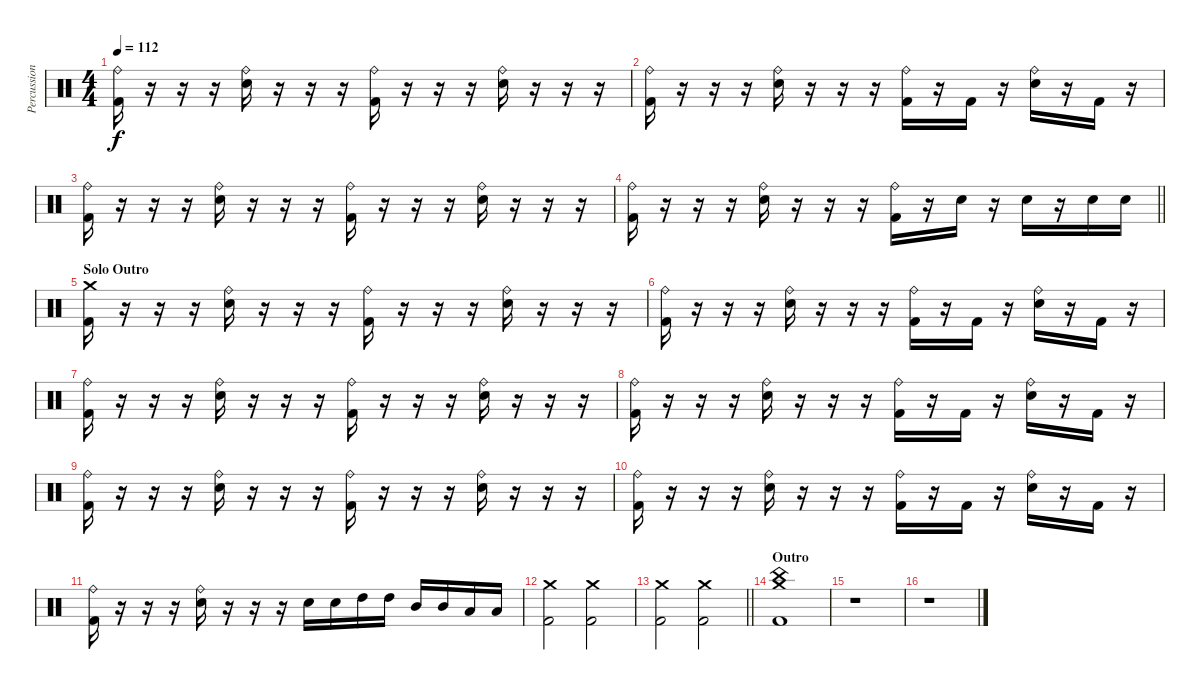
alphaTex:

\track ("Percussioni" "Percussion") {instrument percussion}
\staff {score}
\articulation defaults
\ts (4 4)
\tempo 112
\clef neutral
\ks c
("Kick (hit) 2" "Ride (bell)").16{dy f} r.16 r.16 r.16 ("Snare (hit) 2" "Ride (bell)").16 r.16 r.16 r.16 ("Kick (hit) 2" "Ride (bell)").16 r.16 r.16 r.16 ("Snare (hit) 2" "Ride (bell)").16 r.16 r.16 r.16 |
("Kick (hit) 2" "Ride (bell)").16 r.16 r.16 r.16 ("Snare (hit) 2" "Ride (bell)").16 r.16 r.16 r.16 ("Kick (hit) 2" "Ride (bell)").16 r.16 "Kick (hit) 2".16 r.16 ("Snare (hit) 2" "Ride (bell)").16 r.16 "Kick (hit) 2".16 r.16 |
("Kick (hit) 2" "Ride (bell)").16 r.16 r.16 r.16 ("Snare (hit) 2" "Ride (bell)").16 r.16 r.16 r.16 ("Kick (hit) 2" "Ride (bell)").16 r.16 r.16 r.16 ("Snare (hit) 2" "Ride (bell)").16 r.16 r.16 r.16 |
\barLineRight lightlight
("Kick (hit) 2" "Ride (bell)").16 r.16 r.16 r.16 ("Snare (hit) 2" "Ride (bell)").16 r.16 r.16 r.16 ("Kick (hit) 2" "Ride (bell)").16 r.16 "Snare (hit) 2".16 r.16 "Snare (hit) 2".16 r.16 "Snare (hit) 2".16 "Snare (hit) 2".16 |
\section ("" "Solo Outro")
("Kick (hit) 2" "Crash medium (hit)").16 r.16 r.16 r.16 ("Snare (hit) 2" "Ride (bell)").16 r.16 r.16 r.16 ("Kick (hit) 2" "Ride (bell)").16 r.16 r.16 r.16 ("Snare (hit) 2" "Ride (bell)").16 r.16 r.16 r.16 |
("Kick (hit) 2" "Ride (bell)").16 r.16 r.16 r.16 ("Snare (hit) 2" "Ride (bell)").16 r.16 r.16 r.16 ("Kick (hit) 2" "Ride (bell)").16 r.16 "Kick (hit) 2".16 r.16 ("Snare (hit) 2" "Ride (bell)").16 r.16 "Kick (hit) 2".16 r.16 |
("Kick (hit) 2" "Ride (bell)").16 r.16 r.16 r.16 ("Snare (hit) 2" "Ride (bell)").16 r.16 r.16 r.16 ("Kick (hit) 2" "Ride (bell)").16 r.16 r.16 r.16 ("Snare (hit) 2" "Ride (bell)").16 r.16 r.16 r.16 |
("Kick (hit) 2" "Ride (bell)").16 r.16 r.16 r.16 ("Snare (hit) 2" "Ride (bell)").16 r.16 r.16 r.16 ("Kick (hit) 2" "Ride (bell)").16 r.16 "Kick (hit) 2".16 r.16 ("Snare (hit) 2" "Ride (bell)").16 r.16 "Kick (hit) 2".16 r.16 |
("Kick (hit) 2" "Ride (bell)").16 r.16 r.16 r.16 ("Snare (hit) 2" "Ride (bell)").16 r.16 r.16 r.16 ("Kick (hit) 2" "Ride (bell)").16 r.16 r.16 r.16 ("Snare (hit) 2" "Ride (bell)").16 r.16 r.16 r.16 |
("Kick (hit) 2" "Ride (bell)").16 r.16 r.16 r.16 ("Snare (hit) 2" "Ride (bell)").16 r.16 r.16 r.16 ("Kick (hit) 2" "Ride (bell)").16 r.16 "Kick (hit) 2".16 r.16 ("Snare (hit) 2" "Ride (bell)").16 r.16 "Kick (hit) 2".16 r.16 |
("Kick (hit) 2" "Ride (bell)").16 r.16 r.16 r.16 ("Snare (hit) 2" "Ride (bell)").16 r.16 r.16 r.16 "Snare (hit) 2".16 "Snare (hit) 2".16 "High Tom (hit)".16 "High Tom (hit)".16 "Mid Tom (hit)".16 "Mid Tom (hit)".16 "Low Tom (hit)".16 "Low Tom (hit)".16 |
("Kick (hit) 2" "Crash medium (hit)").2 ("Kick (hit) 2" "Crash medium (hit)").2 |
\barLineRight lightlight
("Kick (hit) 2" "Crash medium (hit)").2 ("Kick (hit) 2" "Crash medium (hit)").2 |
\section ("" "Outro")
("Kick (hit) 2" "Crash medium (hit)" "China (hit)").1 |
r.1 |
r.1
